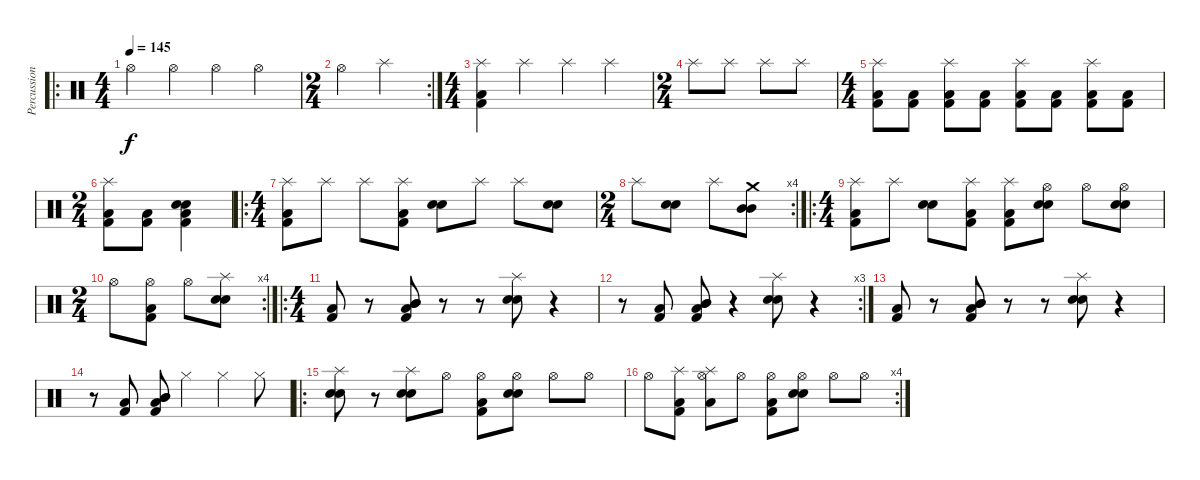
\track ("Percussions" "Percussion") {instrument percussion}
\staff {score}
\articulation defaults
\ro
\ts (4 4)
\tempo 145
\clef neutral
\ks c "Hi-Hat (open)".4{dy f} "Hi-Hat (open)".4 "Hi-Hat (open)".4 "Hi-Hat (open)".4
|
\rc 2
\ts (2 4)
"Hi-Hat (open)".4 "Splash (hit)".4 |
\ts (4 4)
("Splash (hit)" "Low Floor Tom (hit)" "Kick (hit) 2").4 "Splash (hit)".4 "Splash (hit)".4 "Splash (hit)".4 |
\ts (2 4)
"Splash (hit)".8 "Splash (hit)".8 "Splash (hit)".8 "Splash (hit)".8 |
\ts (4 4)
("Splash (hit)" "Low Floor Tom (hit)" "Kick (hit) 2").8 ("Low Floor Tom (hit)" "Kick (hit) 2").8 ("Splash (hit)" "Low Floor Tom (hit)" "Kick (hit) 2").8 ("Low Floor Tom (hit)" "Kick (hit) 2").8 ("Splash (hit)" "Low Floor Tom (hit)" "Kick (hit) 2").8 ("Low Floor Tom (hit)" "Kick (hit) 2").8 ("Splash (hit)" "Low Floor Tom (hit)" "Kick (hit) 2").8 ("Low Floor Tom (hit)" "Kick (hit) 2").8 |
\ts (2 4)
("Splash (hit)" "Low Floor Tom (hit)" "Kick (hit) 2").8 ("Low Floor Tom (hit)" "Kick (hit) 2").8 ("Snare (hit) 2" "Low Floor Tom (hit)" "Kick (hit) 2" "Electric Snare (hit)").4 |
\ro
\ts (4 4)
("Splash (hit)" "Low Floor Tom (hit)" "Kick (hit) 2").8 "Splash (hit)".8 "Splash (hit)".8 ("Splash (hit)" "Low Floor Tom (hit)" "Kick (hit) 2").8 ("Snare (hit) 2" "Electric Snare (hit)").8 "Splash (hit)".8 "Splash (hit)".8 ("Snare (hit) 2" "Electric Snare (hit)").8 |
\rc 4
\ts (2 4)
"Splash (hit)".8 ("Snare (hit) 2" "Electric Snare (hit)").8 "Splash (hit)".8 ("Crash medium (hit)" "Mid Tom (hit)" "Mid Tom (hit)").8 |
\ro
\ts (4 4)
("Splash (hit)" "Low Floor Tom (hit)" "Kick (hit) 2").8 "Splash (hit)".8 ("Snare (hit) 2" "Electric Snare (hit)").8 ("Splash (hit)" "Low Floor Tom (hit)" "Kick (hit) 2").8 ("Splash (hit)" "Low Floor Tom (hit)" "Kick (hit) 2").8 ("Hi-Hat (open)" "Snare (hit) 2" "Electric Snare (hit)").8 "Hi-Hat (open)".8 ("Hi-Hat (open)" "Snare (hit) 2" "Electric Snare (hit)").8 |
\rc 4
\ts (2 4)
"Hi-Hat (open)".8 ("Hi-Hat (open)" "Low Floor Tom (hit)" "Kick (hit) 2").8 "Hi-Hat (open)".8 ("Splash (hit)" "Snare (hit) 2" "Electric Snare (hit)").8 |
\ro
\ts (4 4)
("Kick (hit) 2" "Low Floor Tom (hit)").8 r.8 ("Mid Tom (hit)" "Kick (hit) 2" "Low Floor Tom (hit)" "Mid Tom (hit)").8 r.8 r.8 ("Splash (hit)" "Snare (hit) 2" "Electric Snare (hit)").8 r.4 |
\rc 3
r.8 ("Kick (hit) 2" "Low Floor Tom (hit)").8 ("Mid Tom (hit)" "Kick (hit) 2" "Low Floor Tom (hit)" "Mid Tom (hit)").8 r.4 ("Splash (hit)" "Snare (hit) 2" "Electric Snare (hit)").8 r.4 |
("Kick (hit) 2" "Low Floor Tom (hit)").8 r.8 ("Mid Tom (hit)" "Kick (hit) 2" "Low Floor Tom (hit)" "Mid Tom (hit)").8 r.8 r.8 ("Splash (hit)" "Snare (hit) 2" "Electric Snare (hit)").8 r.4 |
r.8 ("Kick (hit) 2" "Low Floor Tom (hit)").8 ("Mid Tom (hit)" "Kick (hit) 2" "Low Floor Tom (hit)" "Mid Tom (hit)").8 "Hi-Hat (closed)".4 "Hi-Hat (closed)".4 "Hi-Hat (closed)".8 |
\ro
("Splash (hit)" "Snare (hit) 2" "Electric Snare (hit)").8 r.8 ("Splash (hit)" "Snare (hit) 2" "Electric Snare (hit)").8 "Hi-Hat (open)".8 ("Hi-Hat (open)" "Low Floor Tom (hit)" "Kick (hit) 2").8 ("Hi-Hat (open)" "Snare (hit) 2" "Electric Snare (hit)").8 "Hi-Hat (open)".8 "Hi-Hat (open)".8 |
\rc 4 "Hi-Hat (open)".8
("Splash (hit)" "Low Floor Tom (hit)" "Kick (hit) 2").8 ("Splash (hit)" "Low Floor Tom (hit)" "Hi-Hat (open)").8 "Hi-Hat (open)".8 ("Hi-Hat (open)" "Low Floor Tom (hit)" "Kick (hit) 2").8 ("Hi-Hat (open)" "Snare (hit) 2" "Electric Snare (hit)").8 "Hi-Hat (open)".8 "Hi-Hat (open)".8
